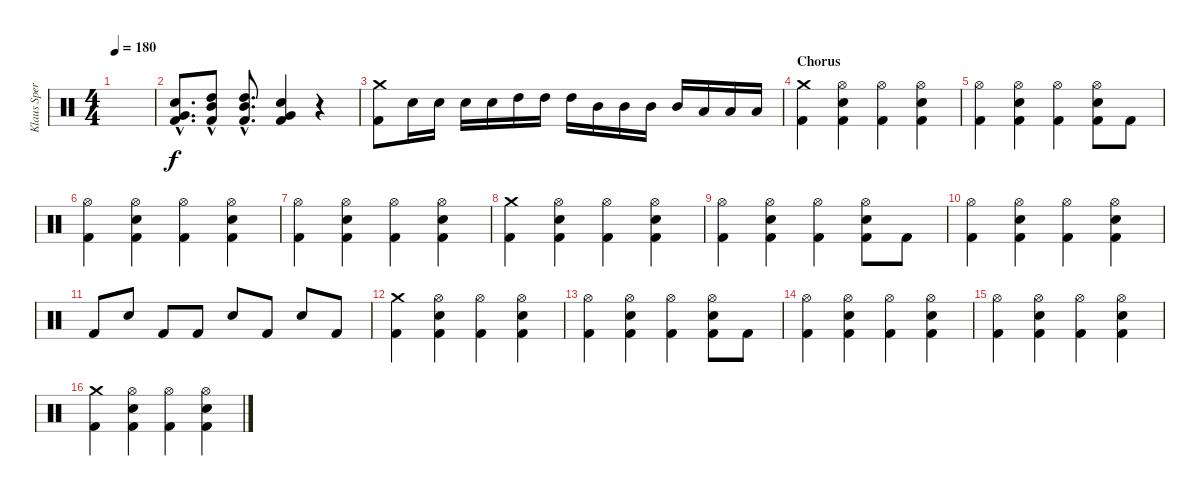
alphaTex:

\track ("Klaus Sperling Drums" "Klaus Sper") {instrument percussion}
\staff {score}
\articulation defaults
\ts (4 4)
\tempo 180
\clef neutral
\ks c
|
("Very Low Tom (hit)"{hac} "Electric Snare (hit)"{hac} "Kick (hit) 2"{hac}).8{d} ("Mid Tom (hit)"{hac} "High Tom (hit)" "Kick (hit) 2").8 ("Mid Tom (hit)"{hac} "High Tom (hit)"{hac} "Kick (hit) 2"{hac}).8{d} ("Very Low Tom (hit)" "Electric Snare (hit)" "Kick (hit) 2").4 r.4 |
("Crash medium (hit)" "Kick (hit) 2").8 "Electric Snare (hit)".16 "Electric Snare (hit)".16 "Electric Snare (hit)".16 "Electric Snare (hit)".16 "High Tom (hit)".16 "High Tom (hit)".16 "High Tom (hit)".16 "Mid Tom (hit)".16 "Mid Tom (hit)".16 "Mid Tom (hit)".16 "Mid Tom (hit)".16 "Low Tom (hit)".16 "Low Tom (hit)".16 "Low Tom (hit)".16 |
\section ("" "Chorus")
("Crash medium (hit)" "Kick (hit) 2").4 ("Hi-Hat (open)" "Electric Snare (hit)" "Kick (hit) 2").4 ("Hi-Hat (open)" "Kick (hit) 2").4 ("Hi-Hat (open)" "Electric Snare (hit)" "Kick (hit) 2").4 |
("Hi-Hat (open)" "Kick (hit) 2").4 ("Hi-Hat (open)" "Electric Snare (hit)" "Kick (hit) 2").4 ("Hi-Hat (open)" "Kick (hit) 2").4 ("Hi-Hat (open)" "Electric Snare (hit)" "Kick (hit) 2").8 "Kick (hit) 2".8 |
("Hi-Hat (open)" "Kick (hit) 2").4 ("Hi-Hat (open)" "Electric Snare (hit)" "Kick (hit) 2").4 ("Hi-Hat (open)" "Kick (hit) 2").4 ("Hi-Hat (open)" "Electric Snare (hit)" "Kick (hit) 2").4 |
("Hi-Hat (open)" "Kick (hit) 2").4 ("Hi-Hat (open)" "Electric Snare (hit)" "Kick (hit) 2").4 ("Hi-Hat (open)" "Kick (hit) 2").4 ("Hi-Hat (open)" "Electric Snare (hit)" "Kick (hit) 2").4 |
("Crash medium (hit)" "Kick (hit) 2").4 ("Hi-Hat (open)" "Electric Snare (hit)" "Kick (hit) 2").4 ("Hi-Hat (open)" "Kick (hit) 2").4 ("Hi-Hat (open)" "Electric Snare (hit)" "Kick (hit) 2").4 |
("Hi-Hat (open)" "Kick (hit) 2").4 ("Hi-Hat (open)" "Electric Snare (hit)" "Kick (hit) 2").4 ("Hi-Hat (open)" "Kick (hit) 2").4 ("Hi-Hat (open)" "Electric Snare (hit)" "Kick (hit) 2").8 "Kick (hit) 2".8 |
("Hi-Hat (open)" "Kick (hit) 2").4 ("Hi-Hat (open)" "Electric Snare (hit)" "Kick (hit) 2").4 ("Hi-Hat (open)" "Kick (hit) 2").4 ("Hi-Hat (open)" "Electric Snare (hit)" "Kick (hit) 2").4 |
"Kick (hit) 2".8 "Electric Snare (hit)".8 "Kick (hit) 2".8 "Kick (hit) 2".8 "Electric Snare (hit)".8 "Kick (hit) 2".8 "Electric Snare (hit)".8 "Kick (hit) 2".8 |
("Crash medium (hit)" "Kick (hit) 2").4 ("Hi-Hat (open)" "Electric Snare (hit)" "Kick (hit) 2").4 ("Hi-Hat (open)" "Kick (hit) 2").4 ("Hi-Hat (open)" "Electric Snare (hit)" "Kick (hit) 2").4 |
("Hi-Hat (open)" "Kick (hit) 2").4 ("Hi-Hat (open)" "Electric Snare (hit)" "Kick (hit) 2").4 ("Hi-Hat (open)" "Kick (hit) 2").4 ("Hi-Hat (open)" "Electric Snare (hit)" "Kick (hit) 2").8 "Kick (hit) 2".8 |
("Hi-Hat (open)" "Kick (hit) 2").4 ("Hi-Hat (open)" "Electric Snare (hit)" "Kick (hit) 2").4 ("Hi-Hat (open)" "Kick (hit) 2").4 ("Hi-Hat (open)" "Electric Snare (hit)" "Kick (hit) 2").4 |
("Hi-Hat (open)" "Kick (hit) 2").4 ("Hi-Hat (open)" "Electric Snare (hit)" "Kick (hit) 2").4 ("Hi-Hat (open)" "Kick (hit) 2").4 ("Hi-Hat (open)" "Electric Snare (hit)" "Kick (hit) 2").4 |
("Crash medium (hit)" "Kick (hit) 2").4 ("Hi-Hat (open)" "Electric Snare (hit)" "Kick (hit) 2").4 ("Hi-Hat (open)" "Kick (hit) 2").4 ("Hi-Hat (open)" "Electric Snare (hit)" "Kick (hit) 2").4
